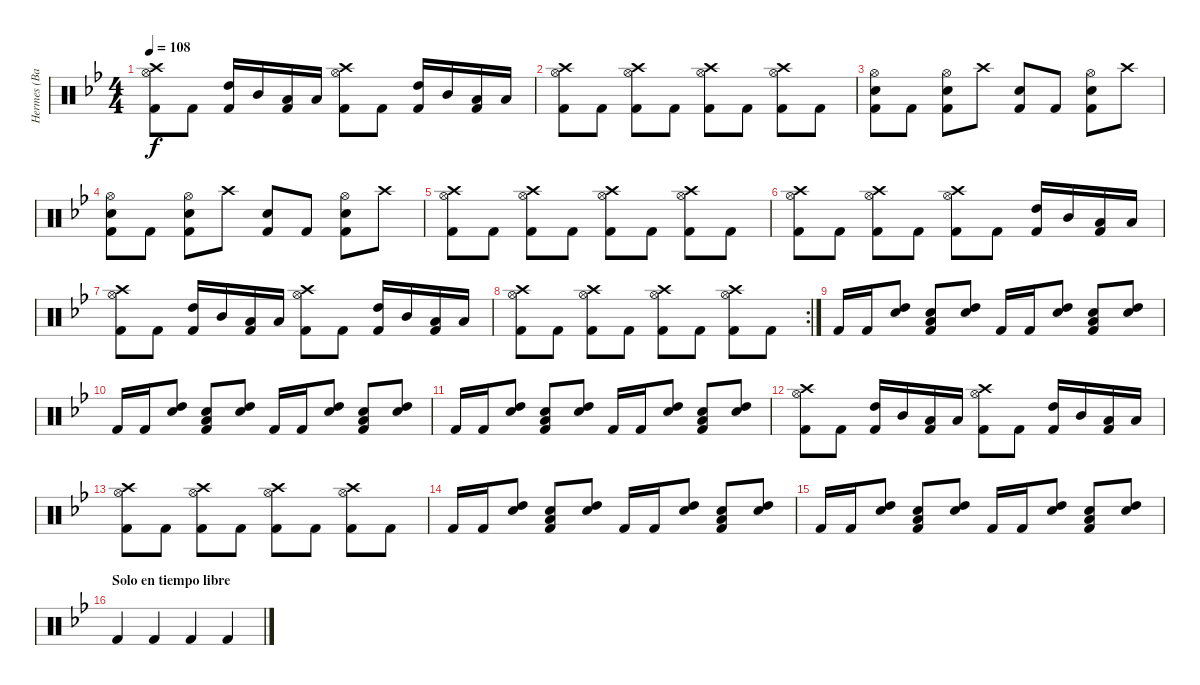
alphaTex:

\track ("Hermes (Bateria)" "Hermes (Ba") {instrument percussion}
\staff {score}
\articulation defaults
\ts (4 4)
\tempo 108
\clef neutral
\ks bb
("Crash high (hit)" "Hi-Hat (open)" "Kick (hit) 2").8{dy f} "Kick (hit) 2".8 ("High Tom (hit)" "Kick (hit) 2").16 "Mid Tom (hit)".16 ("Low Tom (hit)" "Kick (hit) 2").16 "Low Tom (hit)".16 ("Crash high (hit)" "Hi-Hat (open)" "Kick (hit) 2").8 "Kick (hit) 2".8 ("High Tom (hit)" "Kick (hit) 2").16 "Mid Tom (hit)".16 ("Low Tom (hit)" "Kick (hit) 2").16 "Low Tom (hit)".16 |
("Crash high (hit)" "Hi-Hat (open)" "Kick (hit) 2").8 "Kick (hit) 2".8 ("Crash high (hit)" "Hi-Hat (open)" "Kick (hit) 2").8 "Kick (hit) 2".8 ("Crash high (hit)" "Hi-Hat (open)" "Kick (hit) 2").8 "Kick (hit) 2".8 ("Crash high (hit)" "Hi-Hat (open)" "Kick (hit) 2").8 "Kick (hit) 2".8 |
("Hi-Hat (open)" "Electric Snare (hit)" "Kick (hit) 2").8 "Kick (hit) 2".8 ("Hi-Hat (open)" "Electric Snare (hit)" "Kick (hit) 2").8 "Crash high (hit)".8 ("Electric Snare (hit)" "Kick (hit) 2").8 "Kick (hit) 2".8 ("Hi-Hat (open)" "Electric Snare (hit)" "Kick (hit) 2").8 "Crash high (hit)".8 |
("Hi-Hat (open)" "Electric Snare (hit)" "Kick (hit) 2").8 "Kick (hit) 2".8 ("Hi-Hat (open)" "Electric Snare (hit)" "Kick (hit) 2").8 "Crash high (hit)".8 ("Electric Snare (hit)" "Kick (hit) 2").8 "Kick (hit) 2".8 ("Hi-Hat (open)" "Electric Snare (hit)" "Kick (hit) 2").8 "Crash high (hit)".8 |
("Crash high (hit)" "Hi-Hat (open)" "Kick (hit) 2").8 "Kick (hit) 2".8 ("Crash high (hit)" "Hi-Hat (open)" "Kick (hit) 2").8 "Kick (hit) 2".8 ("Crash high (hit)" "Hi-Hat (open)" "Kick (hit) 2").8 "Kick (hit) 2".8 ("Crash high (hit)" "Hi-Hat (open)" "Kick (hit) 2").8 "Kick (hit) 2".8 |
("Crash high (hit)" "Hi-Hat (open)" "Kick (hit) 2").8 "Kick (hit) 2".8 ("Crash high (hit)" "Hi-Hat (open)" "Kick (hit) 2").8 "Kick (hit) 2".8 ("Crash high (hit)" "Hi-Hat (open)" "Kick (hit) 2").8 "Kick (hit) 2".8 ("High Tom (hit)" "Kick (hit) 2").16 "Mid Tom (hit)".16 ("Low Tom (hit)" "Kick (hit) 2").16 "Low Tom (hit)".16 |
("Crash high (hit)" "Hi-Hat (open)" "Kick (hit) 2").8 "Kick (hit) 2".8 ("High Tom (hit)" "Kick (hit) 2").16 "Mid Tom (hit)".16 ("Low Tom (hit)" "Kick (hit) 2").16 "Low Tom (hit)".16 ("Crash high (hit)" "Hi-Hat (open)" "Kick (hit) 2").8 "Kick (hit) 2".8 ("High Tom (hit)" "Kick (hit) 2").16 "Mid Tom (hit)".16 ("Low Tom (hit)" "Kick (hit) 2").16 "Low Tom (hit)".16 |
\rc 2
("Crash high (hit)" "Hi-Hat (open)" "Kick (hit) 2").8 "Kick (hit) 2".8 ("Crash high (hit)" "Hi-Hat (open)" "Kick (hit) 2").8 "Kick (hit) 2".8 ("Crash high (hit)" "Hi-Hat (open)" "Kick (hit) 2").8 "Kick (hit) 2".8 ("Crash high (hit)" "Hi-Hat (open)" "Kick (hit) 2").8 "Kick (hit) 2".8 |
"Kick (hit) 2".16 "Kick (hit) 2".16 ("High Tom (hit)" "Snare (hit) 2").8 ("Low Tom (hit)" "Snare (hit) 2" "Kick (hit) 2").8 ("High Tom (hit)" "Snare (hit) 2").8 "Kick (hit) 2".16 "Kick (hit) 2".16 ("High Tom (hit)" "Snare (hit) 2").8 ("Low Tom (hit)" "Snare (hit) 2" "Kick (hit) 2").8 ("High Tom (hit)" "Snare (hit) 2").8 |
"Kick (hit) 2".16 "Kick (hit) 2".16 ("High Tom (hit)" "Snare (hit) 2").8 ("Low Tom (hit)" "Snare (hit) 2" "Kick (hit) 2").8 ("High Tom (hit)" "Snare (hit) 2").8 "Kick (hit) 2".16 "Kick (hit) 2".16 ("High Tom (hit)" "Snare (hit) 2").8 ("Low Tom (hit)" "Snare (hit) 2" "Kick (hit) 2").8 ("High Tom (hit)" "Snare (hit) 2").8 |
"Kick (hit) 2".16 "Kick (hit) 2".16 ("High Tom (hit)" "Snare (hit) 2").8 ("Low Tom (hit)" "Snare (hit) 2" "Kick (hit) 2").8 ("High Tom (hit)" "Snare (hit) 2").8 "Kick (hit) 2".16 "Kick (hit) 2".16 ("High Tom (hit)" "Snare (hit) 2").8 ("Low Tom (hit)" "Snare (hit) 2" "Kick (hit) 2").8 ("High Tom (hit)" "Snare (hit) 2").8 |
("Crash high (hit)" "Hi-Hat (open)" "Kick (hit) 2").8 "Kick (hit) 2".8 ("High Tom (hit)" "Kick (hit) 2").16 "Mid Tom (hit)".16 ("Low Tom (hit)" "Kick (hit) 2").16 "Low Tom (hit)".16 ("Crash high (hit)" "Hi-Hat (open)" "Kick (hit) 2").8 "Kick (hit) 2".8 ("High Tom (hit)" "Kick (hit) 2").16 "Mid Tom (hit)".16 ("Low Tom (hit)" "Kick (hit) 2").16 "Low Tom (hit)".16 |
("Crash high (hit)" "Hi-Hat (open)" "Kick (hit) 2").8 "Kick (hit) 2".8 ("Crash high (hit)" "Hi-Hat (open)" "Kick (hit) 2").8 "Kick (hit) 2".8 ("Crash high (hit)" "Hi-Hat (open)" "Kick (hit) 2").8 "Kick (hit) 2".8 ("Crash high (hit)" "Hi-Hat (open)" "Kick (hit) 2").8 "Kick (hit) 2".8 |
"Kick (hit) 2".16 "Kick (hit) 2".16 ("High Tom (hit)" "Snare (hit) 2").8 ("Low Tom (hit)" "Snare (hit) 2" "Kick (hit) 2").8 ("High Tom (hit)" "Snare (hit) 2").8 "Kick (hit) 2".16 "Kick (hit) 2".16 ("High Tom (hit)" "Snare (hit) 2").8 ("Low Tom (hit)" "Snare (hit) 2" "Kick (hit) 2").8 ("High Tom (hit)" "Snare (hit) 2").8 |
"Kick (hit) 2".16 "Kick (hit) 2".16 ("High Tom (hit)" "Snare (hit) 2").8 ("Low Tom (hit)" "Snare (hit) 2" "Kick (hit) 2").8 ("High Tom (hit)" "Snare (hit) 2").8 "Kick (hit) 2".16 "Kick (hit) 2".16 ("High Tom (hit)" "Snare (hit) 2").8 ("Low Tom (hit)" "Snare (hit) 2" "Kick (hit) 2").8 ("High Tom (hit)" "Snare (hit) 2").8 |
\section ("" "Solo en tiempo libre")
"Kick (hit) 2".4 "Kick (hit) 2".4 "Kick (hit) 2".4 "Kick (hit) 2".4
